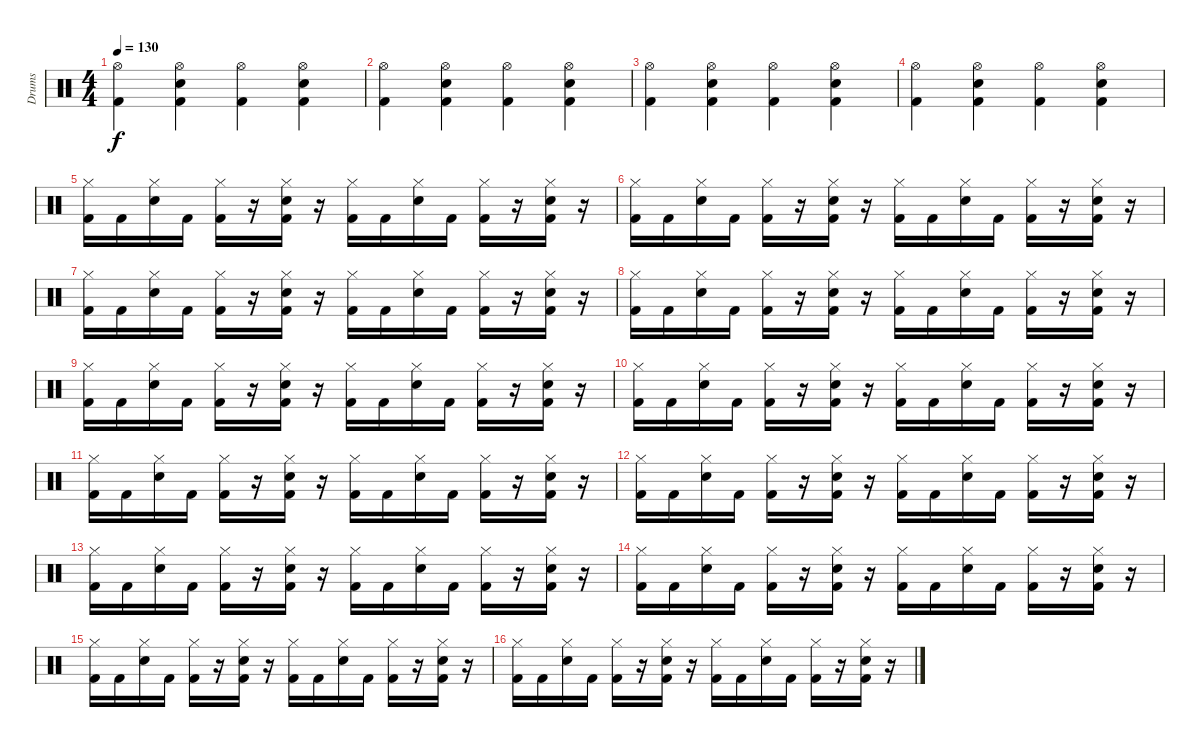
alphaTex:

\track ("Drums" "Drums") {instrument percussion}
\staff {score}
\articulation defaults
\ts (4 4)
\tempo 130
\clef neutral
\ks c
("Hi-Hat (open)" "Kick (hit) 2").4{dy f} ("Hi-Hat (open)" "Electric Snare (hit)" "Kick (hit) 2").4 ("Hi-Hat (open)" "Kick (hit) 2").4 ("Hi-Hat (open)" "Electric Snare (hit)" "Kick (hit) 2").4 |
("Hi-Hat (open)" "Kick (hit) 2").4 ("Hi-Hat (open)" "Electric Snare (hit)" "Kick (hit) 2").4 ("Hi-Hat (open)" "Kick (hit) 2").4 ("Hi-Hat (open)" "Electric Snare (hit)" "Kick (hit) 2").4 |
("Hi-Hat (open)" "Kick (hit) 2").4 ("Hi-Hat (open)" "Electric Snare (hit)" "Kick (hit) 2").4 ("Hi-Hat (open)" "Kick (hit) 2").4 ("Hi-Hat (open)" "Electric Snare (hit)" "Kick (hit) 2").4 |
("Hi-Hat (open)" "Kick (hit) 2").4 ("Hi-Hat (open)" "Electric Snare (hit)" "Kick (hit) 2").4 ("Hi-Hat (open)" "Kick (hit) 2").4 ("Hi-Hat (open)" "Electric Snare (hit)" "Kick (hit) 2").4 |
("Kick (hit) 2" "Hi-Hat (closed)").16 "Kick (hit) 2".16 ("Hi-Hat (closed)" "Electric Snare (hit)").16 "Kick (hit) 2".16 ("Kick (hit) 2" "Hi-Hat (closed)").16 r.16 ("Kick (hit) 2" "Hi-Hat (closed)" "Electric Snare (hit)").16 r.16 ("Kick (hit) 2" "Hi-Hat (closed)").16 "Kick (hit) 2".16 ("Hi-Hat (closed)" "Electric Snare (hit)").16 "Kick (hit) 2".16 ("Kick (hit) 2" "Hi-Hat (closed)").16 r.16 ("Kick (hit) 2" "Hi-Hat (closed)" "Electric Snare (hit)").16 r.16 |
("Kick (hit) 2" "Hi-Hat (closed)").16 "Kick (hit) 2".16 ("Hi-Hat (closed)" "Electric Snare (hit)").16 "Kick (hit) 2".16 ("Kick (hit) 2" "Hi-Hat (closed)").16 r.16 ("Kick (hit) 2" "Hi-Hat (closed)" "Electric Snare (hit)").16 r.16 ("Kick (hit) 2" "Hi-Hat (closed)").16 "Kick (hit) 2".16 ("Hi-Hat (closed)" "Electric Snare (hit)").16 "Kick (hit) 2".16 ("Kick (hit) 2" "Hi-Hat (closed)").16 r.16 ("Kick (hit) 2" "Hi-Hat (closed)" "Electric Snare (hit)").16 r.16 |
("Kick (hit) 2" "Hi-Hat (closed)").16 "Kick (hit) 2".16 ("Hi-Hat (closed)" "Electric Snare (hit)").16 "Kick (hit) 2".16 ("Kick (hit) 2" "Hi-Hat (closed)").16 r.16 ("Kick (hit) 2" "Hi-Hat (closed)" "Electric Snare (hit)").16 r.16 ("Kick (hit) 2" "Hi-Hat (closed)").16 "Kick (hit) 2".16 ("Hi-Hat (closed)" "Electric Snare (hit)").16 "Kick (hit) 2".16 ("Kick (hit) 2" "Hi-Hat (closed)").16 r.16 ("Kick (hit) 2" "Hi-Hat (closed)" "Electric Snare (hit)").16 r.16 |
("Kick (hit) 2" "Hi-Hat (closed)").16 "Kick (hit) 2".16 ("Hi-Hat (closed)" "Electric Snare (hit)").16 "Kick (hit) 2".16 ("Kick (hit) 2" "Hi-Hat (closed)").16 r.16 ("Kick (hit) 2" "Hi-Hat (closed)" "Electric Snare (hit)").16 r.16 ("Kick (hit) 2" "Hi-Hat (closed)").16 "Kick (hit) 2".16 ("Hi-Hat (closed)" "Electric Snare (hit)").16 "Kick (hit) 2".16 ("Kick (hit) 2" "Hi-Hat (closed)").16 r.16 ("Kick (hit) 2" "Hi-Hat (closed)" "Electric Snare (hit)").16 r.16 |
("Kick (hit) 2" "Hi-Hat (closed)").16 "Kick (hit) 2".16 ("Hi-Hat (closed)" "Electric Snare (hit)").16 "Kick (hit) 2".16 ("Kick (hit) 2" "Hi-Hat (closed)").16 r.16 ("Kick (hit) 2" "Hi-Hat (closed)" "Electric Snare (hit)").16 r.16 ("Kick (hit) 2" "Hi-Hat (closed)").16 "Kick (hit) 2".16 ("Hi-Hat (closed)" "Electric Snare (hit)").16 "Kick (hit) 2".16 ("Kick (hit) 2" "Hi-Hat (closed)").16 r.16 ("Kick (hit) 2" "Hi-Hat (closed)" "Electric Snare (hit)").16 r.16 |
("Kick (hit) 2" "Hi-Hat (closed)").16 "Kick (hit) 2".16 ("Hi-Hat (closed)" "Electric Snare (hit)").16 "Kick (hit) 2".16 ("Kick (hit) 2" "Hi-Hat (closed)").16 r.16 ("Kick (hit) 2" "Hi-Hat (closed)" "Electric Snare (hit)").16 r.16 ("Kick (hit) 2" "Hi-Hat (closed)").16 "Kick (hit) 2".16 ("Hi-Hat (closed)" "Electric Snare (hit)").16 "Kick (hit) 2".16 ("Kick (hit) 2" "Hi-Hat (closed)").16 r.16 ("Kick (hit) 2" "Hi-Hat (closed)" "Electric Snare (hit)").16 r.16 |
("Kick (hit) 2" "Hi-Hat (closed)").16 "Kick (hit) 2".16 ("Hi-Hat (closed)" "Electric Snare (hit)").16 "Kick (hit) 2".16 ("Kick (hit) 2" "Hi-Hat (closed)").16 r.16 ("Kick (hit) 2" "Hi-Hat (closed)" "Electric Snare (hit)").16 r.16 ("Kick (hit) 2" "Hi-Hat (closed)").16 "Kick (hit) 2".16 ("Hi-Hat (closed)" "Electric Snare (hit)").16 "Kick (hit) 2".16 ("Kick (hit) 2" "Hi-Hat (closed)").16 r.16 ("Kick (hit) 2" "Hi-Hat (closed)" "Electric Snare (hit)").16 r.16 |
("Kick (hit) 2" "Hi-Hat (closed)").16 "Kick (hit) 2".16 ("Hi-Hat (closed)" "Electric Snare (hit)").16 "Kick (hit) 2".16 ("Kick (hit) 2" "Hi-Hat (closed)").16 r.16 ("Kick (hit) 2" "Hi-Hat (closed)" "Electric Snare (hit)").16 r.16 ("Kick (hit) 2" "Hi-Hat (closed)").16 "Kick (hit) 2".16 ("Hi-Hat (closed)" "Electric Snare (hit)").16 "Kick (hit) 2".16 ("Kick (hit) 2" "Hi-Hat (closed)").16 r.16 ("Kick (hit) 2" "Hi-Hat (closed)" "Electric Snare (hit)").16 r.16 |
("Kick (hit) 2" "Hi-Hat (closed)").16 "Kick (hit) 2".16 ("Hi-Hat (closed)" "Electric Snare (hit)").16 "Kick (hit) 2".16 ("Kick (hit) 2" "Hi-Hat (closed)").16 r.16 ("Kick (hit) 2" "Hi-Hat (closed)" "Electric Snare (hit)").16 r.16 ("Kick (hit) 2" "Hi-Hat (closed)").16 "Kick (hit) 2".16 ("Hi-Hat (closed)" "Electric Snare (hit)").16 "Kick (hit) 2".16 ("Kick (hit) 2" "Hi-Hat (closed)").16 r.16 ("Kick (hit) 2" "Hi-Hat (closed)" "Electric Snare (hit)").16 r.16 |
("Kick (hit) 2" "Hi-Hat (closed)").16 "Kick (hit) 2".16 ("Hi-Hat (closed)" "Electric Snare (hit)").16 "Kick (hit) 2".16 ("Kick (hit) 2" "Hi-Hat (closed)").16 r.16 ("Kick (hit) 2" "Hi-Hat (closed)" "Electric Snare (hit)").16 r.16 ("Kick (hit) 2" "Hi-Hat (closed)").16 "Kick (hit) 2".16 ("Hi-Hat (closed)" "Electric Snare (hit)").16 "Kick (hit) 2".16 ("Kick (hit) 2" "Hi-Hat (closed)").16 r.16 ("Kick (hit) 2" "Hi-Hat (closed)" "Electric Snare (hit)").16 r.16 |
("Kick (hit) 2" "Hi-Hat (closed)").16 "Kick (hit) 2".16 ("Hi-Hat (closed)" "Electric Snare (hit)").16 "Kick (hit) 2".16 ("Kick (hit) 2" "Hi-Hat (closed)").16 r.16 ("Kick (hit) 2" "Hi-Hat (closed)" "Electric Snare (hit)").16 r.16 ("Kick (hit) 2" "Hi-Hat (closed)").16 "Kick (hit) 2".16 ("Hi-Hat (closed)" "Electric Snare (hit)").16 "Kick (hit) 2".16 ("Kick (hit) 2" "Hi-Hat (closed)").16 r.16 ("Kick (hit) 2" "Hi-Hat (closed)" "Electric Snare (hit)").16 r.16 |
("Kick (hit) 2" "Hi-Hat (closed)").16 "Kick (hit) 2".16 ("Hi-Hat (closed)" "Electric Snare (hit)").16 "Kick (hit) 2".16 ("Kick (hit) 2" "Hi-Hat (closed)").16 r.16 ("Kick (hit) 2" "Hi-Hat (closed)" "Electric Snare (hit)").16 r.16 ("Kick (hit) 2" "Hi-Hat (closed)").16 "Kick (hit) 2".16 ("Hi-Hat (closed)" "Electric Snare (hit)").16 "Kick (hit) 2".16 ("Kick (hit) 2" "Hi-Hat (closed)").16 r.16 ("Kick (hit) 2" "Hi-Hat (closed)" "Electric Snare (hit)").16 r.16
